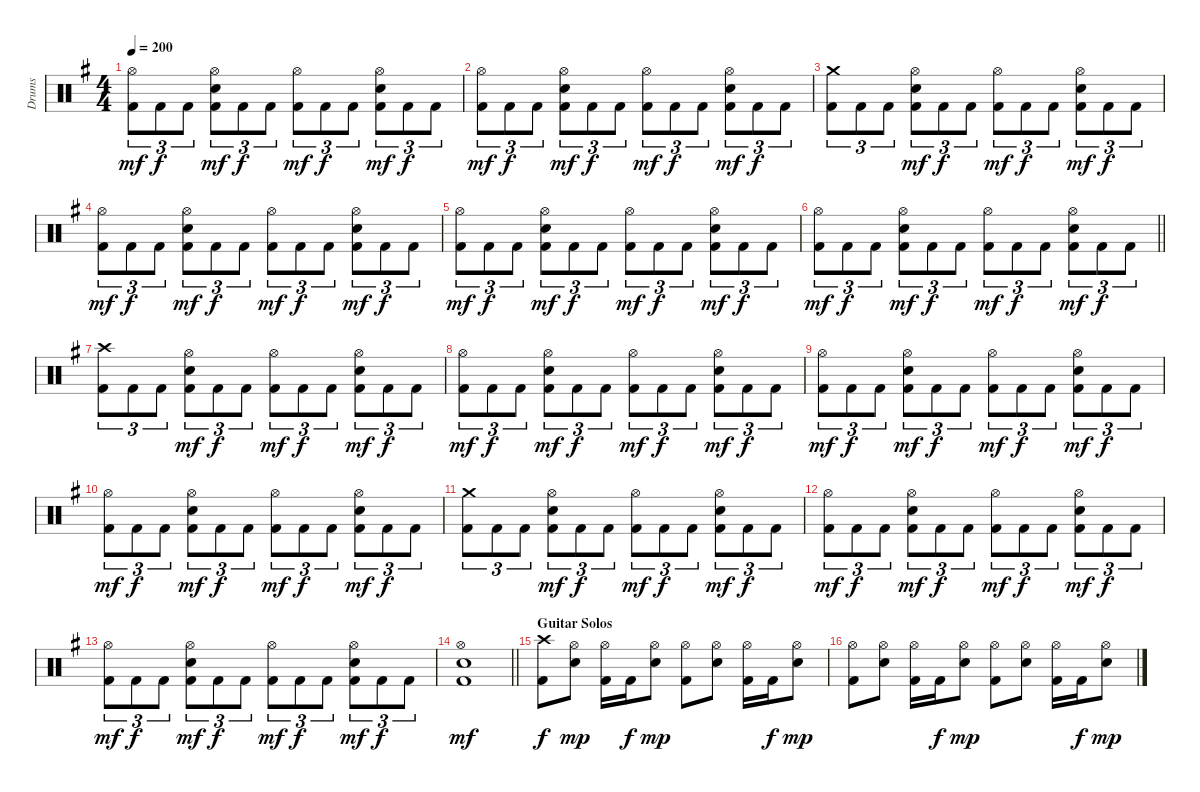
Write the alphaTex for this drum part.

\track ("Drums" "Drums") {instrument percussion}
\staff {score}
\articulation defaults
\ts (4 4)
\tempo 200
\clef neutral
\ks g
("Hi-Hat (open)" "Kick (hit) 2").8{tu (3 2) dy mf} "Kick (hit) 2".8{tu (3 2) dy f} "Kick (hit) 2".8{tu (3 2)} ("Hi-Hat (open)" "Snare (hit) 2" "Kick (hit) 2").8{tu (3 2) dy mf} "Kick (hit) 2".8{tu (3 2) dy f} "Kick (hit) 2".8{tu (3 2)} ("Hi-Hat (open)" "Kick (hit) 2").8{tu (3 2) dy mf} "Kick (hit) 2".8{tu (3 2) dy f} "Kick (hit) 2".8{tu (3 2)} ("Hi-Hat (open)" "Snare (hit) 2" "Kick (hit) 2").8{tu (3 2) dy mf} "Kick (hit) 2".8{tu (3 2) dy f} "Kick (hit) 2".8{tu (3 2)} |
("Hi-Hat (open)" "Kick (hit) 2").8{tu (3 2) dy mf} "Kick (hit) 2".8{tu (3 2) dy f} "Kick (hit) 2".8{tu (3 2)} ("Hi-Hat (open)" "Snare (hit) 2" "Kick (hit) 2").8{tu (3 2) dy mf} "Kick (hit) 2".8{tu (3 2) dy f} "Kick (hit) 2".8{tu (3 2)} ("Hi-Hat (open)" "Kick (hit) 2").8{tu (3 2) dy mf} "Kick (hit) 2".8{tu (3 2) dy f} "Kick (hit) 2".8{tu (3 2)} ("Hi-Hat (open)" "Snare (hit) 2" "Kick (hit) 2").8{tu (3 2) dy mf} "Kick (hit) 2".8{tu (3 2) dy f} "Kick (hit) 2".8{tu (3 2)} |
("Crash medium (hit)" "Kick (hit) 2").8{tu (3 2)} "Kick (hit) 2".8{tu (3 2)} "Kick (hit) 2".8{tu (3 2)} ("Hi-Hat (open)" "Snare (hit) 2" "Kick (hit) 2").8{tu (3 2) dy mf} "Kick (hit) 2".8{tu (3 2) dy f} "Kick (hit) 2".8{tu (3 2)} ("Hi-Hat (open)" "Kick (hit) 2").8{tu (3 2) dy mf} "Kick (hit) 2".8{tu (3 2) dy f} "Kick (hit) 2".8{tu (3 2)} ("Hi-Hat (open)" "Snare (hit) 2" "Kick (hit) 2").8{tu (3 2) dy mf} "Kick (hit) 2".8{tu (3 2) dy f} "Kick (hit) 2".8{tu (3 2)} |
("Hi-Hat (open)" "Kick (hit) 2").8{tu (3 2) dy mf} "Kick (hit) 2".8{tu (3 2) dy f} "Kick (hit) 2".8{tu (3 2)} ("Hi-Hat (open)" "Snare (hit) 2" "Kick (hit) 2").8{tu (3 2) dy mf} "Kick (hit) 2".8{tu (3 2) dy f} "Kick (hit) 2".8{tu (3 2)} ("Hi-Hat (open)" "Kick (hit) 2").8{tu (3 2) dy mf} "Kick (hit) 2".8{tu (3 2) dy f} "Kick (hit) 2".8{tu (3 2)} ("Hi-Hat (open)" "Snare (hit) 2" "Kick (hit) 2").8{tu (3 2) dy mf} "Kick (hit) 2".8{tu (3 2) dy f} "Kick (hit) 2".8{tu (3 2)} |
("Hi-Hat (open)" "Kick (hit) 2").8{tu (3 2) dy mf} "Kick (hit) 2".8{tu (3 2) dy f} "Kick (hit) 2".8{tu (3 2)} ("Hi-Hat (open)" "Snare (hit) 2" "Kick (hit) 2").8{tu (3 2) dy mf} "Kick (hit) 2".8{tu (3 2) dy f} "Kick (hit) 2".8{tu (3 2)} ("Hi-Hat (open)" "Kick (hit) 2").8{tu (3 2) dy mf} "Kick (hit) 2".8{tu (3 2) dy f} "Kick (hit) 2".8{tu (3 2)} ("Hi-Hat (open)" "Snare (hit) 2" "Kick (hit) 2").8{tu (3 2) dy mf} "Kick (hit) 2".8{tu (3 2) dy f} "Kick (hit) 2".8{tu (3 2)} |
\barLineRight lightlight
("Hi-Hat (open)" "Kick (hit) 2").8{tu (3 2) dy mf} "Kick (hit) 2".8{tu (3 2) dy f} "Kick (hit) 2".8{tu (3 2)} ("Hi-Hat (open)" "Snare (hit) 2" "Kick (hit) 2").8{tu (3 2) dy mf} "Kick (hit) 2".8{tu (3 2) dy f} "Kick (hit) 2".8{tu (3 2)} ("Hi-Hat (open)" "Kick (hit) 2").8{tu (3 2) dy mf} "Kick (hit) 2".8{tu (3 2) dy f} "Kick (hit) 2".8{tu (3 2)} ("Hi-Hat (open)" "Snare (hit) 2" "Kick (hit) 2").8{tu (3 2) dy mf} "Kick (hit) 2".8{tu (3 2) dy f} "Kick (hit) 2".8{tu (3 2)} |
\section ("" "")
("Crash high (hit)" "Kick (hit) 2").8{tu (3 2)} "Kick (hit) 2".8{tu (3 2)} "Kick (hit) 2".8{tu (3 2)} ("Hi-Hat (open)" "Snare (hit) 2" "Kick (hit) 2").8{tu (3 2) dy mf} "Kick (hit) 2".8{tu (3 2) dy f} "Kick (hit) 2".8{tu (3 2)} ("Hi-Hat (open)" "Kick (hit) 2").8{tu (3 2) dy mf} "Kick (hit) 2".8{tu (3 2) dy f} "Kick (hit) 2".8{tu (3 2)} ("Hi-Hat (open)" "Snare (hit) 2" "Kick (hit) 2").8{tu (3 2) dy mf} "Kick (hit) 2".8{tu (3 2) dy f} "Kick (hit) 2".8{tu (3 2)} |
("Hi-Hat (open)" "Kick (hit) 2").8{tu (3 2) dy mf} "Kick (hit) 2".8{tu (3 2) dy f} "Kick (hit) 2".8{tu (3 2)} ("Hi-Hat (open)" "Snare (hit) 2" "Kick (hit) 2").8{tu (3 2) dy mf} "Kick (hit) 2".8{tu (3 2) dy f} "Kick (hit) 2".8{tu (3 2)} ("Hi-Hat (open)" "Kick (hit) 2").8{tu (3 2) dy mf} "Kick (hit) 2".8{tu (3 2) dy f} "Kick (hit) 2".8{tu (3 2)} ("Hi-Hat (open)" "Snare (hit) 2" "Kick (hit) 2").8{tu (3 2) dy mf} "Kick (hit) 2".8{tu (3 2) dy f} "Kick (hit) 2".8{tu (3 2)} |
("Hi-Hat (open)" "Kick (hit) 2").8{tu (3 2) dy mf} "Kick (hit) 2".8{tu (3 2) dy f} "Kick (hit) 2".8{tu (3 2)} ("Hi-Hat (open)" "Snare (hit) 2" "Kick (hit) 2").8{tu (3 2) dy mf} "Kick (hit) 2".8{tu (3 2) dy f} "Kick (hit) 2".8{tu (3 2)} ("Hi-Hat (open)" "Kick (hit) 2").8{tu (3 2) dy mf} "Kick (hit) 2".8{tu (3 2) dy f} "Kick (hit) 2".8{tu (3 2)} ("Hi-Hat (open)" "Snare (hit) 2" "Kick (hit) 2").8{tu (3 2) dy mf} "Kick (hit) 2".8{tu (3 2) dy f} "Kick (hit) 2".8{tu (3 2)} |
("Hi-Hat (open)" "Kick (hit) 2").8{tu (3 2) dy mf} "Kick (hit) 2".8{tu (3 2) dy f} "Kick (hit) 2".8{tu (3 2)} ("Hi-Hat (open)" "Snare (hit) 2" "Kick (hit) 2").8{tu (3 2) dy mf} "Kick (hit) 2".8{tu (3 2) dy f} "Kick (hit) 2".8{tu (3 2)} ("Hi-Hat (open)" "Kick (hit) 2").8{tu (3 2) dy mf} "Kick (hit) 2".8{tu (3 2) dy f} "Kick (hit) 2".8{tu (3 2)} ("Hi-Hat (open)" "Snare (hit) 2" "Kick (hit) 2").8{tu (3 2) dy mf} "Kick (hit) 2".8{tu (3 2) dy f} "Kick (hit) 2".8{tu (3 2)} |
("Crash medium (hit)" "Kick (hit) 2").8{tu (3 2)} "Kick (hit) 2".8{tu (3 2)} "Kick (hit) 2".8{tu (3 2)} ("Hi-Hat (open)" "Snare (hit) 2" "Kick (hit) 2").8{tu (3 2) dy mf} "Kick (hit) 2".8{tu (3 2) dy f} "Kick (hit) 2".8{tu (3 2)} ("Hi-Hat (open)" "Kick (hit) 2").8{tu (3 2) dy mf} "Kick (hit) 2".8{tu (3 2) dy f} "Kick (hit) 2".8{tu (3 2)} ("Hi-Hat (open)" "Snare (hit) 2" "Kick (hit) 2").8{tu (3 2) dy mf} "Kick (hit) 2".8{tu (3 2) dy f} "Kick (hit) 2".8{tu (3 2)} |
("Hi-Hat (open)" "Kick (hit) 2").8{tu (3 2) dy mf} "Kick (hit) 2".8{tu (3 2) dy f} "Kick (hit) 2".8{tu (3 2)} ("Hi-Hat (open)" "Snare (hit) 2" "Kick (hit) 2").8{tu (3 2) dy mf} "Kick (hit) 2".8{tu (3 2) dy f} "Kick (hit) 2".8{tu (3 2)} ("Hi-Hat (open)" "Kick (hit) 2").8{tu (3 2) dy mf} "Kick (hit) 2".8{tu (3 2) dy f} "Kick (hit) 2".8{tu (3 2)} ("Hi-Hat (open)" "Snare (hit) 2" "Kick (hit) 2").8{tu (3 2) dy mf} "Kick (hit) 2".8{tu (3 2) dy f} "Kick (hit) 2".8{tu (3 2)} |
("Hi-Hat (open)" "Kick (hit) 2").8{tu (3 2) dy mf} "Kick (hit) 2".8{tu (3 2) dy f} "Kick (hit) 2".8{tu (3 2)} ("Hi-Hat (open)" "Snare (hit) 2" "Kick (hit) 2").8{tu (3 2) dy mf} "Kick (hit) 2".8{tu (3 2) dy f} "Kick (hit) 2".8{tu (3 2)} ("Hi-Hat (open)" "Kick (hit) 2").8{tu (3 2) dy mf} "Kick (hit) 2".8{tu (3 2) dy f} "Kick (hit) 2".8{tu (3 2)} ("Hi-Hat (open)" "Snare (hit) 2" "Kick (hit) 2").8{tu (3 2) dy mf} "Kick (hit) 2".8{tu (3 2) dy f} "Kick (hit) 2".8{tu (3 2)} |
\barLineRight lightlight
("Hi-Hat (open)" "Snare (hit) 2" "Kick (hit) 2").1{dy mf} |
\section ("" "Guitar Solos")
("Crash high (hit)" "Kick (hit) 2").8{dy f} ("Hi-Hat (open)" "Snare (hit) 2").8{dy mp} ("Hi-Hat (open)" "Kick (hit) 2").16 "Kick (hit) 2".16{dy f} ("Hi-Hat (open)" "Snare (hit) 2").8{dy mp} ("Hi-Hat (open)" "Kick (hit) 2").8 ("Hi-Hat (open)" "Snare (hit) 2").8 ("Hi-Hat (open)" "Kick (hit) 2").16 "Kick (hit) 2".16{dy f} ("Hi-Hat (open)" "Snare (hit) 2").8{dy mp} |
("Hi-Hat (open)" "Kick (hit) 2").8 ("Hi-Hat (open)" "Snare (hit) 2").8 ("Hi-Hat (open)" "Kick (hit) 2").16 "Kick (hit) 2".16{dy f} ("Hi-Hat (open)" "Snare (hit) 2").8{dy mp} ("Hi-Hat (open)" "Kick (hit) 2").8 ("Hi-Hat (open)" "Snare (hit) 2").8 ("Hi-Hat (open)" "Kick (hit) 2").16 "Kick (hit) 2".16{dy f} ("Hi-Hat (open)" "Snare (hit) 2").8{dy mp}
